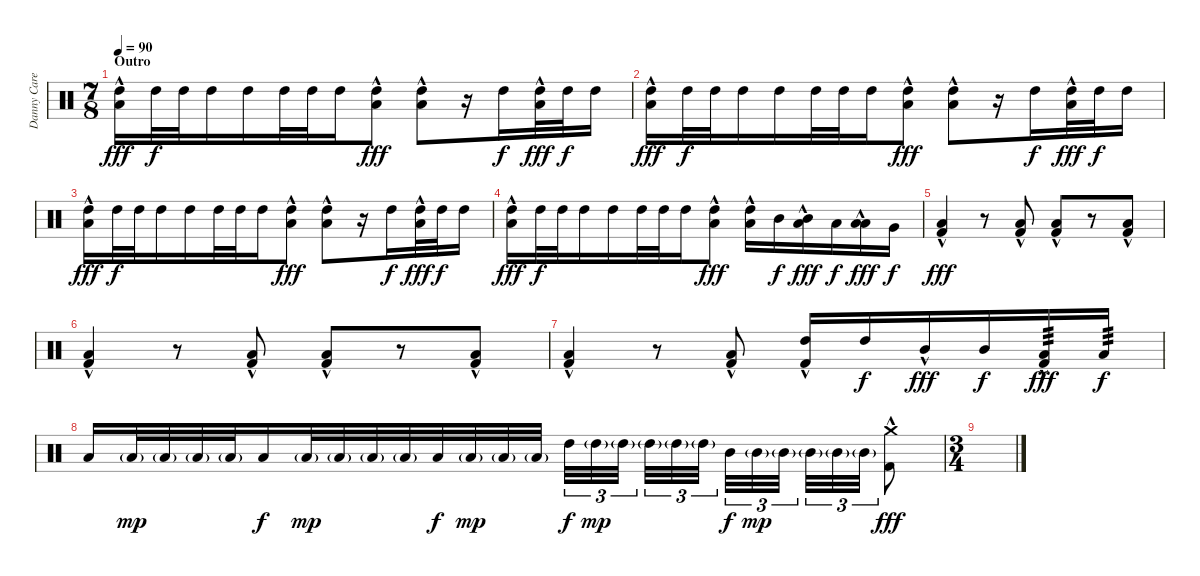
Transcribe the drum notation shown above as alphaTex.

\track ("Danny Carey" "Danny Care") {instrument percussion}
\staff {score}
\articulation defaults
\ts (7 8)
\section ("" "Outro")
\tempo 90
\clef neutral
\ks c
("High Tom (hit)"{hac} "Low Tom (hit)"{hac}).16{dy fff} "High Tom (hit)".32{dy f} "High Tom (hit)".32 "High Tom (hit)".16 "High Tom (hit)".16 "High Tom (hit)".32 "High Tom (hit)".32 "High Tom (hit)".16 ("High Tom (hit)"{hac} "Low Tom (hit)"{hac}).8{dy fff} ("High Tom (hit)"{hac} "Low Tom (hit)"{hac}).8 r.16 "High Tom (hit)".16{dy f} ("High Tom (hit)"{hac} "Low Tom (hit)"{hac}).32{dy fff} "High Tom (hit)".32{dy f} "High Tom (hit)".16 |
("High Tom (hit)"{hac} "Low Tom (hit)"{hac}).16{dy fff} "High Tom (hit)".32{dy f} "High Tom (hit)".32 "High Tom (hit)".16 "High Tom (hit)".16 "High Tom (hit)".32 "High Tom (hit)".32 "High Tom (hit)".16 ("High Tom (hit)"{hac} "Low Tom (hit)"{hac}).8{dy fff} ("High Tom (hit)"{hac} "Low Tom (hit)"{hac}).8 r.16 "High Tom (hit)".16{dy f} ("High Tom (hit)"{hac} "Low Tom (hit)"{hac}).32{dy fff} "High Tom (hit)".32{dy f} "High Tom (hit)".16 |
("High Tom (hit)"{hac} "Low Tom (hit)"{hac}).16{dy fff} "High Tom (hit)".32{dy f} "High Tom (hit)".32 "High Tom (hit)".16 "High Tom (hit)".16 "High Tom (hit)".32 "High Tom (hit)".32 "High Tom (hit)".16 ("High Tom (hit)"{hac} "Low Tom (hit)"{hac}).8{dy fff} ("High Tom (hit)"{hac} "Low Tom (hit)"{hac}).8 r.16 "High Tom (hit)".16{dy f} ("High Tom (hit)"{hac} "Low Tom (hit)"{hac}).32{dy fff} "High Tom (hit)".32{dy f} "High Tom (hit)".16 |
("High Tom (hit)"{hac} "Low Tom (hit)"{hac}).16{dy fff} "High Tom (hit)".32{dy f} "High Tom (hit)".32 "High Tom (hit)".16 "High Tom (hit)".16 "High Tom (hit)".32 "High Tom (hit)".32 "High Tom (hit)".16 ("High Tom (hit)"{hac} "Low Tom (hit)"{hac}).8{dy fff} ("High Tom (hit)"{hac} "Low Floor Tom (hit)").16 "Mid Tom (hit)".16{dy f} ("Mid Tom (hit)"{hac} "Low Floor Tom (hit)").16{dy fff} "Low Tom (hit)".16{dy f} ("Low Tom (hit)"{hac} "Low Floor Tom (hit)").16{dy fff} "Very Low Tom (hit)".16{dy f} |
("Low Floor Tom (hit)"{hac} "Kick (hit) 2"{hac}).4{dy fff} r.8 ("Low Floor Tom (hit)"{hac} "Kick (hit) 2"{hac}).8 ("Low Floor Tom (hit)"{hac} "Kick (hit) 2"{hac}).8 r.8 ("Low Floor Tom (hit)"{hac} "Kick (hit) 2"{hac}).8 |
("Low Floor Tom (hit)"{hac} "Kick (hit) 2"{hac}).4 r.8 ("Low Floor Tom (hit)"{hac} "Kick (hit) 2"{hac}).8 ("Low Floor Tom (hit)"{hac} "Kick (hit) 2"{hac}).8 r.8 ("Low Floor Tom (hit)"{hac} "Kick (hit) 2"{hac}).8 |
("Low Floor Tom (hit)"{hac} "Kick (hit) 2"{hac}).4 r.8 ("Low Floor Tom (hit)"{hac} "Kick (hit) 2"{hac}).8 ("High Tom (hit)"{hac} "Kick (hit) 2"{hac}).16 "High Tom (hit)".16{dy f} "Mid Tom (hit)"{hac}.16{dy fff} "Mid Tom (hit)".16{dy f} ("Low Tom (hit)"{hac} "Kick (hit) 2"{hac}).16{tp 3 dy fff} "Low Tom (hit)".16{tp 3 dy f} |
"Low Tom (hit)".16 "Low Tom (hit)"{g}.32{dy mp} "Low Tom (hit)"{g}.32 "Low Tom (hit)"{g}.32 "Low Tom (hit)"{g}.32 "Low Tom (hit)".16{dy f} "Low Tom (hit)"{g}.32{dy mp} "Low Tom (hit)"{g}.32 "Low Tom (hit)"{g}.32 "Low Tom (hit)"{g}.32 "Low Tom (hit)".32{dy f} "Low Tom (hit)"{g}.32{dy mp} "Low Tom (hit)"{g}.32 "Low Tom (hit)"{g}.32 "High Tom (hit)".32{tu (3 2) dy f} "High Tom (hit)"{g}.32{tu (3 2) dy mp} "High Tom (hit)"{g}.32{tu (3 2) beam splitsecondary} "High Tom (hit)"{g}.32{tu (3 2)} "High Tom (hit)"{g}.32{tu (3 2)} "High Tom (hit)"{g}.32{tu (3 2)} "Mid Tom (hit)".32{tu (3 2) dy f} "Mid Tom (hit)"{g}.32{tu (3 2) dy mp} "Mid Tom (hit)"{g}.32{tu (3 2) beam splitsecondary} "Mid Tom (hit)"{g}.32{tu (3 2)} "Mid Tom (hit)"{g}.32{tu (3 2)} "Mid Tom (hit)"{g}.32{tu (3 2)} ("Crash medium (hit)" "Kick (hit) 2"{hac}).8{dy fff} |
\ts (3 4)
